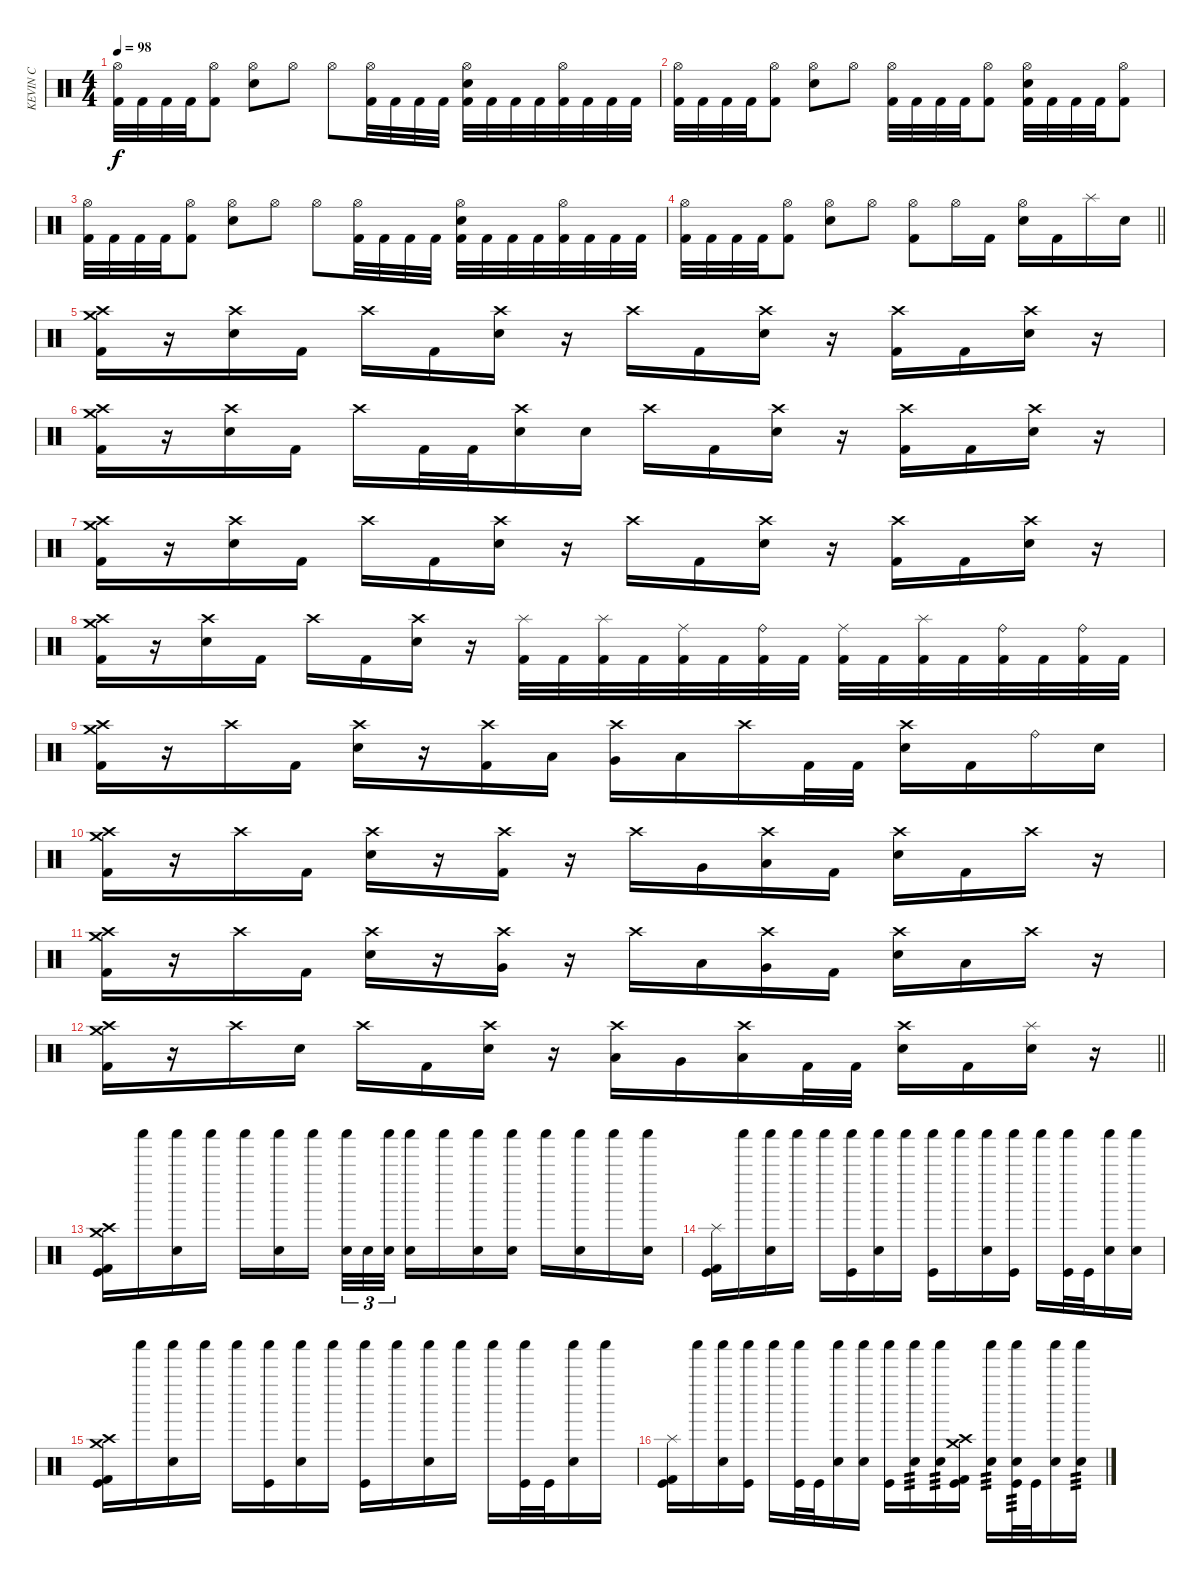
\track ("KEVIN C" "KEVIN C") {instrument percussion}
\staff {score}
\articulation defaults
\ts (4 4)
\tempo 98
\clef neutral
\ks c
("Hi-Hat (open)" "Kick (hit) 2").32{dy f} "Kick (hit) 2".32 "Kick (hit) 2".32 "Kick (hit) 2".32 ("Hi-Hat (open)" "Kick (hit) 2").8 ("Hi-Hat (open)" "Snare (hit) 2").8 "Hi-Hat (open)".8 "Hi-Hat (open)".8 ("Hi-Hat (open)" "Kick (hit) 2").32 "Kick (hit) 2".32 "Kick (hit) 2".32 "Kick (hit) 2".32 ("Hi-Hat (open)" "Snare (hit) 2" "Kick (hit) 2").32 "Kick (hit) 2".32 "Kick (hit) 2".32 "Kick (hit) 2".32 ("Hi-Hat (open)" "Kick (hit) 2").32 "Kick (hit) 2".32 "Kick (hit) 2".32 "Kick (hit) 2".32 |
("Hi-Hat (open)" "Kick (hit) 2").32 "Kick (hit) 2".32 "Kick (hit) 2".32 "Kick (hit) 2".32 ("Hi-Hat (open)" "Kick (hit) 2").8 ("Hi-Hat (open)" "Snare (hit) 2").8 "Hi-Hat (open)".8 ("Hi-Hat (open)" "Kick (hit) 2").32 "Kick (hit) 2".32 "Kick (hit) 2".32 "Kick (hit) 2".32 ("Hi-Hat (open)" "Kick (hit) 2").8 ("Hi-Hat (open)" "Snare (hit) 2" "Kick (hit) 2").32 "Kick (hit) 2".32 "Kick (hit) 2".32 "Kick (hit) 2".32 ("Hi-Hat (open)" "Kick (hit) 2").8 |
("Hi-Hat (open)" "Kick (hit) 2").32 "Kick (hit) 2".32 "Kick (hit) 2".32 "Kick (hit) 2".32 ("Hi-Hat (open)" "Kick (hit) 2").8 ("Hi-Hat (open)" "Snare (hit) 2").8 "Hi-Hat (open)".8 "Hi-Hat (open)".8 ("Hi-Hat (open)" "Kick (hit) 2").32 "Kick (hit) 2".32 "Kick (hit) 2".32 "Kick (hit) 2".32 ("Hi-Hat (open)" "Snare (hit) 2" "Kick (hit) 2").32 "Kick (hit) 2".32 "Kick (hit) 2".32 "Kick (hit) 2".32 ("Hi-Hat (open)" "Kick (hit) 2").32 "Kick (hit) 2".32 "Kick (hit) 2".32 "Kick (hit) 2".32 |
\barLineRight lightlight
("Hi-Hat (open)" "Kick (hit) 2").32 "Kick (hit) 2".32 "Kick (hit) 2".32 "Kick (hit) 2".32 ("Hi-Hat (open)" "Kick (hit) 2").8 ("Hi-Hat (open)" "Snare (hit) 2").8 "Hi-Hat (open)".8 ("Hi-Hat (open)" "Kick (hit) 2").8 "Hi-Hat (open)".16 "Kick (hit) 2".16 ("Hi-Hat (open)" "Snare (hit) 2").16 "Kick (hit) 2".16 "Splash (hit)".16 "Snare (hit) 2".16 |
("Crash high (hit)" "Crash medium (hit)" "Kick (hit) 2").16 r.16 ("Crash high (hit)" "Snare (hit) 2").16 "Kick (hit) 2".16 "Crash high (hit)".16 "Kick (hit) 2".16 ("Crash high (hit)" "Snare (hit) 2").16 r.16 "Crash high (hit)".16 "Kick (hit) 2".16 ("Crash high (hit)" "Snare (hit) 2").16 r.16 ("Crash high (hit)" "Kick (hit) 2").16 "Kick (hit) 2".16 ("Crash high (hit)" "Snare (hit) 2").16 r.16 |
("Crash high (hit)" "Crash medium (hit)" "Kick (hit) 2").16 r.16 ("Crash high (hit)" "Snare (hit) 2").16 "Kick (hit) 2".16 "Crash high (hit)".16 "Kick (hit) 2".32 "Kick (hit) 2".32 ("Crash high (hit)" "Snare (hit) 2").16 "Snare (hit) 2".16 "Crash high (hit)".16 "Kick (hit) 2".16 ("Crash high (hit)" "Snare (hit) 2").16 r.16 ("Crash high (hit)" "Kick (hit) 2").16 "Kick (hit) 2".16 ("Crash high (hit)" "Snare (hit) 2").16 r.16 |
("Crash high (hit)" "Crash medium (hit)" "Kick (hit) 2").16 r.16 ("Crash high (hit)" "Snare (hit) 2").16 "Kick (hit) 2".16 "Crash high (hit)".16 "Kick (hit) 2".16 ("Crash high (hit)" "Snare (hit) 2").16 r.16 "Crash high (hit)".16 "Kick (hit) 2".16 ("Crash high (hit)" "Snare (hit) 2").16 r.16 ("Crash high (hit)" "Kick (hit) 2").16 "Kick (hit) 2".16 ("Crash high (hit)" "Snare (hit) 2").16 r.16 |
("Crash high (hit)" "Crash medium (hit)" "Kick (hit) 2").16 r.16 ("Crash high (hit)" "Snare (hit) 2").16 "Kick (hit) 2".16 "Crash high (hit)".16 "Kick (hit) 2".16 ("Crash high (hit)" "Snare (hit) 2").16 r.16 ("Splash (hit)" "Kick (hit) 2").32 "Kick (hit) 2".32 ("Splash (hit)" "Kick (hit) 2").32 "Kick (hit) 2".32 ("Ride (middle)" "Kick (hit) 2").32 "Kick (hit) 2".32 ("Ride (bell)" "Kick (hit) 2").32 "Kick (hit) 2".32 ("Ride (middle)" "Kick (hit) 2").32 "Kick (hit) 2".32 ("Splash (hit)" "Kick (hit) 2").32 "Kick (hit) 2".32 ("Ride (bell)" "Kick (hit) 2").32 "Kick (hit) 2".32 ("Ride (bell)" "Kick (hit) 2").32 "Kick (hit) 2".32 |
("Crash high (hit)" "Crash medium (hit)" "Kick (hit) 2").16 r.16 "Crash high (hit)".16 "Kick (hit) 2".16 ("Crash high (hit)" "Snare (hit) 2").16 r.16 ("Crash high (hit)" "Kick (hit) 2").16 "Low Tom (hit)".16 ("Crash high (hit)" "Very Low Tom (hit)").16 "Low Floor Tom (hit)".16 "Crash high (hit)".16 "Kick (hit) 2".32 "Kick (hit) 2".32 ("Crash high (hit)" "Snare (hit) 2").16 "Kick (hit) 2".16 "Ride (bell)".16 "Snare (hit) 2".16 |
("Crash high (hit)" "Crash medium (hit)" "Kick (hit) 2").16 r.16 "Crash high (hit)".16 "Kick (hit) 2".16 ("Crash high (hit)" "Snare (hit) 2").16 r.16 ("Crash high (hit)" "Kick (hit) 2").16 r.16 "Crash high (hit)".16 "Very Low Tom (hit)".16 ("Crash high (hit)" "Low Floor Tom (hit)").16 "Kick (hit) 2".16 ("Crash high (hit)" "Snare (hit) 2").16 "Kick (hit) 2".16 "Crash high (hit)".16 r.16 |
("Crash high (hit)" "Crash medium (hit)" "Kick (hit) 2").16 r.16 "Crash high (hit)".16 "Kick (hit) 2".16 ("Crash high (hit)" "Snare (hit) 2").16 r.16 ("Crash high (hit)" "Very Low Tom (hit)").16 r.16 "Crash high (hit)".16 "Low Tom (hit)".16 ("Crash high (hit)" "Very Low Tom (hit)").16 "Kick (hit) 2".16 ("Crash high (hit)" "Snare (hit) 2").16 "Low Floor Tom (hit)".16 "Crash high (hit)".16 r.16 |
\barLineRight lightlight
("Crash high (hit)" "Crash medium (hit)" "Kick (hit) 2").16 r.16 "Crash high (hit)".16 "Snare (hit) 2".16 "Crash high (hit)".16 "Kick (hit) 2".16 ("Crash high (hit)" "Snare (hit) 2").16 r.16 ("Crash high (hit)" "Low Tom (hit)").16 "Very Low Tom (hit)".16 ("Crash high (hit)" "Low Floor Tom (hit)").16 "Kick (hit) 2".32 "Kick (hit) 2".32 ("Crash high (hit)" "Snare (hit) 2").16 "Kick (hit) 2".16 ("Splash (hit)" "Snare (hit) 2").16 r.16 |
("Crash medium (hit)" "Crash high (hit)" "Kick (hit) 2" "Kick (hit)").16 "Shaker (hit)".16 ("Shaker (hit)" "Electric Snare (hit)").16 "Shaker (hit)".16 "Shaker (hit)".16 ("Shaker (hit)" "Electric Snare (hit)").16 "Shaker (hit)".16{beam splitsecondary} ("Shaker (hit)" "Electric Snare (hit)").32{tu (3 2)} "Electric Snare (hit)".32{tu (3 2)} ("Shaker (hit)" "Electric Snare (hit)").32{tu (3 2)} ("Shaker (hit)" "Electric Snare (hit)").16 "Shaker (hit)".16 ("Shaker (hit)" "Electric Snare (hit)").16 ("Shaker (hit)" "Electric Snare (hit)").16 "Shaker (hit)".16 ("Shaker (hit)" "Electric Snare (hit)").16 "Shaker (hit)".16 ("Shaker (hit)" "Electric Snare (hit)").16 |
("Splash (hit)" "Kick (hit) 2" "Kick (hit)").16 "Shaker (hit)".16 ("Shaker (hit)" "Electric Snare (hit)").16 "Shaker (hit)".16 "Shaker (hit)".16 ("Shaker (hit)" "Kick (hit)").16 ("Shaker (hit)" "Electric Snare (hit)").16 "Shaker (hit)".16 ("Shaker (hit)" "Kick (hit)").16 "Shaker (hit)".16 ("Shaker (hit)" "Electric Snare (hit)").16 ("Shaker (hit)" "Kick (hit)").16 "Shaker (hit)".16 ("Shaker (hit)" "Kick (hit)").32 "Kick (hit)".32 ("Shaker (hit)" "Electric Snare (hit)").16 ("Shaker (hit)" "Electric Snare (hit)").16 |
("Crash medium (hit)" "Crash high (hit)" "Kick (hit) 2" "Kick (hit)").16 "Shaker (hit)".16 ("Shaker (hit)" "Electric Snare (hit)").16 "Shaker (hit)".16 "Shaker (hit)".16 ("Shaker (hit)" "Kick (hit)").16 ("Shaker (hit)" "Electric Snare (hit)").16 "Shaker (hit)".16 ("Shaker (hit)" "Kick (hit)").16 "Shaker (hit)".16 ("Shaker (hit)" "Electric Snare (hit)").16 "Shaker (hit)".16 "Shaker (hit)".16 ("Shaker (hit)" "Kick (hit)").32 "Kick (hit)".32 ("Shaker (hit)" "Electric Snare (hit)").16 "Shaker (hit)".16 |
("Splash (hit)" "Kick (hit) 2" "Kick (hit)").16 "Shaker (hit)".16 ("Shaker (hit)" "Electric Snare (hit)").16 ("Shaker (hit)" "Kick (hit)").16 "Shaker (hit)".16 ("Shaker (hit)" "Kick (hit)").32 "Kick (hit)".32 ("Shaker (hit)" "Electric Snare (hit)").16 ("Shaker (hit)" "Electric Snare (hit)").16 ("Shaker (hit)" "Kick (hit)").16 ("Shaker (hit)" "Electric Snare (hit)").16{tp 3} ("Shaker (hit)" "Electric Snare (hit)").16{tp 3} ("Crash medium (hit)" "Crash high (hit)" "Kick (hit) 2" "Kick (hit)").16 ("Shaker (hit)" "Electric Snare (hit)").16{tp 3} ("Shaker (hit)" "Electric Snare (hit)" "Kick (hit)").32{tp 3} "Kick (hit)".32 ("Shaker (hit)" "Electric Snare (hit)").16 ("Shaker (hit)" "Electric Snare (hit)").16{tp 3}
